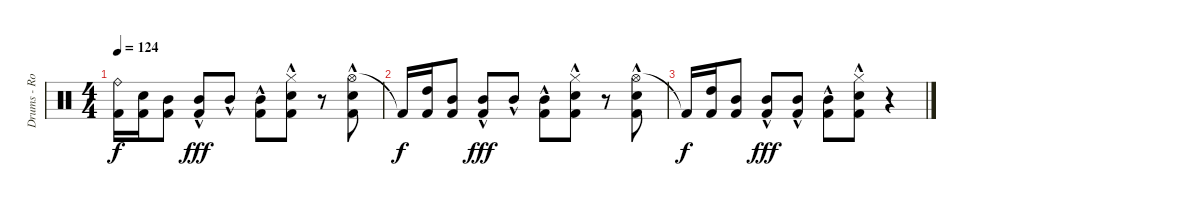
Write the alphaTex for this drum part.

\track ("Drums - Rockenfield" "Drums - Ro") {instrument percussion}
\staff {score}
\articulation defaults
\ts (4 4)
\tempo 124
\clef neutral
\ks c
("Ride (bell)" "Kick (hit) 2"{t}).16{dy f} ("Snare (hit) 2" "Kick (hit) 2").16 ("Mid Tom (hit)" "Kick (hit) 2").8 ("Mid Tom (hit)"{hac} "Kick (hit) 2"{hac}).8{dy fff} "Mid Tom (hit)"{hac}.8 ("Mid Tom (hit)"{hac} "Kick (hit) 2"{hac}).8 ("Hi-Hat (closed)"{hac} "Snare (hit) 2"{hac} "Kick (hit) 2"{hac}).8 r.8 ("Hi-Hat (open)"{hac} "Snare (hit) 2"{hac} "Kick (hit) 2"{hac}).8 |
"Kick (hit) 2"{t}.16{dy f} ("High Tom (hit)" "Kick (hit) 2").16 ("Mid Tom (hit)" "Kick (hit) 2").8 ("Mid Tom (hit)"{hac} "Kick (hit) 2"{hac}).8{dy fff} "Mid Tom (hit)"{hac}.8 ("Mid Tom (hit)"{hac} "Kick (hit) 2"{hac}).8 ("Hi-Hat (closed)"{hac} "Snare (hit) 2"{hac} "Kick (hit) 2"{hac}).8 r.8 ("Hi-Hat (open)"{hac} "Snare (hit) 2"{hac} "Kick (hit) 2"{hac}).8 |
"Kick (hit) 2"{t}.16{dy f} ("High Tom (hit)" "Kick (hit) 2").16 ("Mid Tom (hit)" "Kick (hit) 2").8 ("Mid Tom (hit)"{hac} "Kick (hit) 2"{hac}).8{dy fff} ("Mid Tom (hit)"{hac} "Kick (hit) 2"{hac}).8 ("Mid Tom (hit)"{hac} "Kick (hit) 2"{hac}).8 ("Hi-Hat (closed)"{hac} "Snare (hit) 2"{hac} "Kick (hit) 2"{hac}).8 r.4
